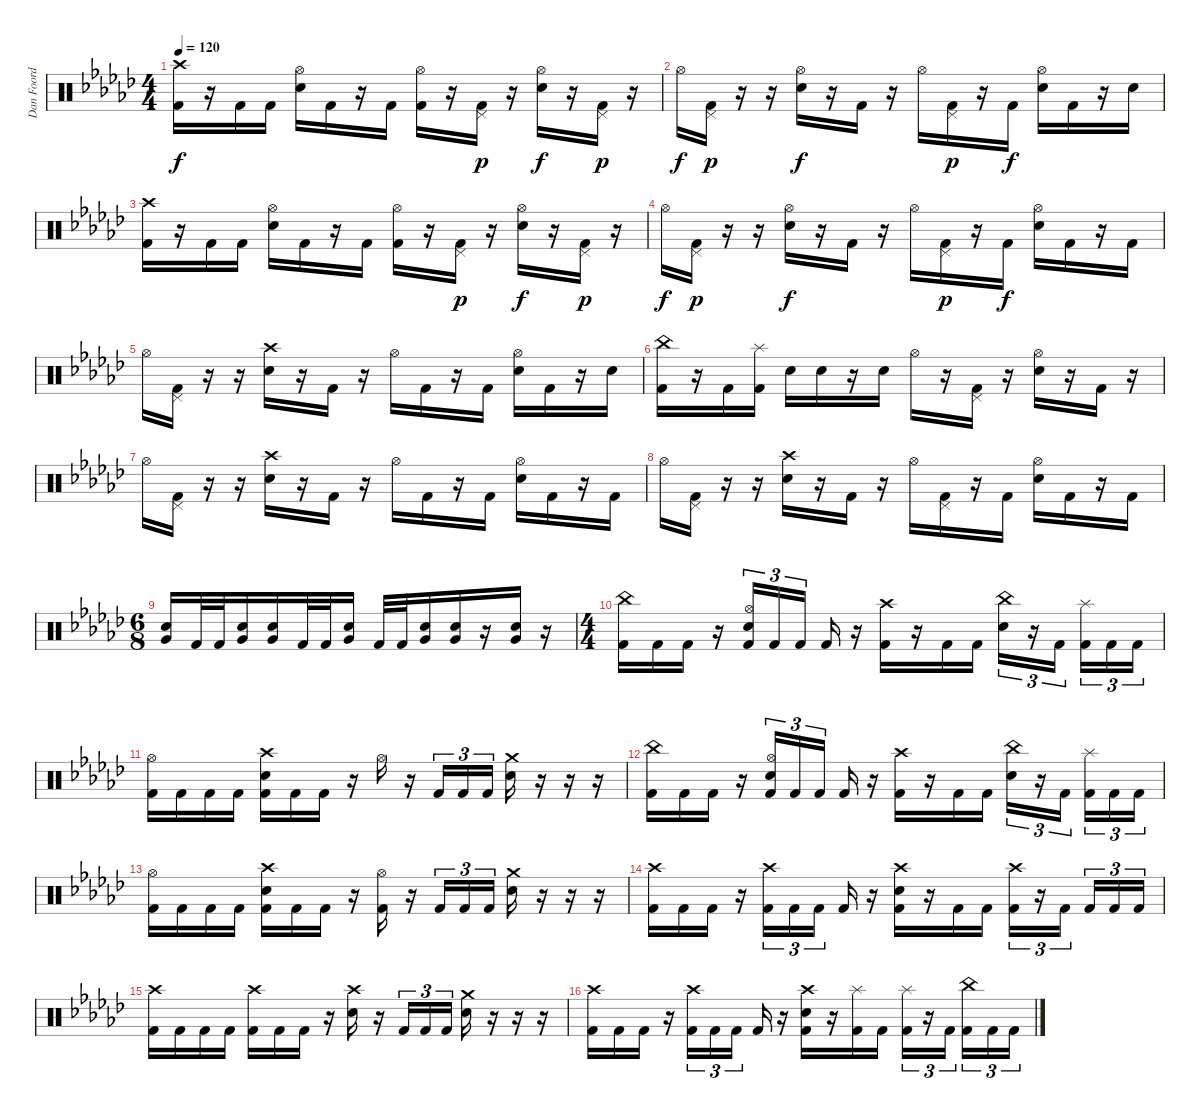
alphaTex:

\track ("Dan Foord 2" "Dan Foord ") {instrument percussion}
\staff {score}
\articulation defaults
\ts (4 4)
\tempo 120
\clef neutral
\ks gb
("Crash high (hit)" "Kick (hit) 2").16{dy f} r.16 "Kick (hit) 2".16 "Kick (hit) 2".16 ("Hi-Hat (open)" "Snare (hit) 2").16 "Kick (hit) 2".16 r.16 "Kick (hit) 2".16 ("Hi-Hat (open)" "Kick (hit) 2").16 r.16 ("Pedal Hi-Hat (hit)" "Kick (hit) 2").16{dy p} r.16 ("Hi-Hat (open)" "Snare (hit) 2").16{dy f} r.16 ("Pedal Hi-Hat (hit)" "Kick (hit) 2").16{dy p} r.16 |
"Hi-Hat (open)".16{dy f} ("Pedal Hi-Hat (hit)" "Kick (hit) 2").16{dy p} r.16 r.16 ("Hi-Hat (open)" "Snare (hit) 2").16{dy f} r.16 "Kick (hit) 2".16 r.16 "Hi-Hat (open)".16 ("Pedal Hi-Hat (hit)" "Kick (hit) 2").16{dy p} r.16 "Kick (hit) 2".16{dy f} ("Hi-Hat (open)" "Snare (hit) 2").16 "Kick (hit) 2".16 r.16 "Snare (hit) 2".16 |
("Crash high (hit)" "Kick (hit) 2").16 r.16 "Kick (hit) 2".16 "Kick (hit) 2".16 ("Hi-Hat (open)" "Snare (hit) 2").16 "Kick (hit) 2".16 r.16 "Kick (hit) 2".16 ("Hi-Hat (open)" "Kick (hit) 2").16 r.16 ("Pedal Hi-Hat (hit)" "Kick (hit) 2").16{dy p} r.16 ("Hi-Hat (open)" "Snare (hit) 2").16{dy f} r.16 ("Pedal Hi-Hat (hit)" "Kick (hit) 2").16{dy p} r.16 |
"Hi-Hat (open)".16{dy f} ("Pedal Hi-Hat (hit)" "Kick (hit) 2").16{dy p} r.16 r.16 ("Hi-Hat (open)" "Snare (hit) 2").16{dy f} r.16 "Kick (hit) 2".16 r.16 "Hi-Hat (open)".16 ("Pedal Hi-Hat (hit)" "Kick (hit) 2").16{dy p} r.16 "Kick (hit) 2".16{dy f} ("Hi-Hat (open)" "Snare (hit) 2").16 "Kick (hit) 2".16 r.16 "Kick (hit) 2".16 |
"Hi-Hat (open)".16 ("Kick (hit) 2" "Pedal Hi-Hat (hit)").16 r.16 r.16 ("Crash high (hit)" "Snare (hit) 2").16 r.16 "Kick (hit) 2".16 r.16 "Hi-Hat (open)".16 "Kick (hit) 2".16 r.16 "Kick (hit) 2".16 ("Hi-Hat (open)" "Snare (hit) 2").16 "Kick (hit) 2".16 r.16 "Snare (hit) 2".16 |
("China (hit)" "Kick (hit) 2").16 r.16 "Kick (hit) 2".16 ("Splash (hit)" "Kick (hit) 2").16 "Snare (hit) 2".16 "Snare (hit) 2".16 r.16 "Snare (hit) 2".16 "Hi-Hat (open)".16 r.16 ("Pedal Hi-Hat (hit)" "Kick (hit) 2").16 r.16 ("Hi-Hat (open)" "Snare (hit) 2").16 r.16 "Kick (hit) 2".16 r.16 |
"Hi-Hat (open)".16 ("Kick (hit) 2" "Pedal Hi-Hat (hit)").16 r.16 r.16 ("Crash high (hit)" "Snare (hit) 2").16 r.16 "Kick (hit) 2".16 r.16 "Hi-Hat (open)".16 "Kick (hit) 2".16 r.16 "Kick (hit) 2".16 ("Hi-Hat (open)" "Snare (hit) 2").16 "Kick (hit) 2".16 r.16 "Kick (hit) 2".16 |
"Hi-Hat (open)".16 ("Kick (hit) 2" "Pedal Hi-Hat (hit)").16 r.16 r.16 ("Crash high (hit)" "Snare (hit) 2").16 r.16 "Kick (hit) 2".16 r.16 "Hi-Hat (open)".16 ("Pedal Hi-Hat (hit)" "Kick (hit) 2").16 r.16 "Kick (hit) 2".16 ("Hi-Hat (open)" "Snare (hit) 2").16 "Kick (hit) 2".16 r.16 "Kick (hit) 2".16 |
\ts (6 8)
("Snare (hit) 2" "Very Low Tom (hit)").16 "Kick (hit) 2".32 "Kick (hit) 2".32 ("Snare (hit) 2" "Very Low Tom (hit)").16 ("Snare (hit) 2" "Very Low Tom (hit)").16 "Kick (hit) 2".32 "Kick (hit) 2".32 ("Snare (hit) 2" "Very Low Tom (hit)").16 "Kick (hit) 2".32 "Kick (hit) 2".32 ("Snare (hit) 2" "Very Low Tom (hit)").16 ("Snare (hit) 2" "Very Low Tom (hit)").16 r.16 ("Snare (hit) 2" "Very Low Tom (hit)").16 r.16 |
\ts (4 4)
("China (hit)" "Kick (hit) 2").16 "Kick (hit) 2".16 "Kick (hit) 2".16 r.16 ("Hi-Hat (open)" "Snare (hit) 2" "Kick (hit) 2").16{tu (3 2)} "Kick (hit) 2".16{tu (3 2)} "Kick (hit) 2".16{tu (3 2) beam splitsecondary} "Kick (hit) 2".16 r.16 ("Crash high (hit)" "Kick (hit) 2").16 r.16 "Kick (hit) 2".16 "Kick (hit) 2".16 ("China (hit)" "Snare (hit) 2").16{tu (3 2)} r.16{tu (3 2)} "Kick (hit) 2".16{tu (3 2) beam splitsecondary} ("Splash (hit)" "Kick (hit) 2").16{tu (3 2)} "Kick (hit) 2".16{tu (3 2)} "Kick (hit) 2".16{tu (3 2)} |
("Hi-Hat (open)" "Kick (hit) 2").16 "Kick (hit) 2".16 "Kick (hit) 2".16 "Kick (hit) 2".16 ("Crash high (hit)" "Snare (hit) 2" "Kick (hit) 2").16 "Kick (hit) 2".16 "Kick (hit) 2".16 r.16 "Hi-Hat (open)".16 r.16 "Kick (hit) 2".16{tu (3 2)} "Kick (hit) 2".16{tu (3 2)} "Kick (hit) 2".16{tu (3 2)} ("Crash medium (hit)" "Snare (hit) 2").16 r.16 r.16 r.16 |
("China (hit)" "Kick (hit) 2").16 "Kick (hit) 2".16 "Kick (hit) 2".16 r.16 ("Hi-Hat (open)" "Snare (hit) 2" "Kick (hit) 2").16{tu (3 2)} "Kick (hit) 2".16{tu (3 2)} "Kick (hit) 2".16{tu (3 2) beam splitsecondary} "Kick (hit) 2".16 r.16 ("Crash high (hit)" "Kick (hit) 2").16 r.16 "Kick (hit) 2".16 "Kick (hit) 2".16 ("China (hit)" "Snare (hit) 2").16{tu (3 2)} r.16{tu (3 2)} "Kick (hit) 2".16{tu (3 2) beam splitsecondary} ("Splash (hit)" "Kick (hit) 2").16{tu (3 2)} "Kick (hit) 2".16{tu (3 2)} "Kick (hit) 2".16{tu (3 2)} |
("Hi-Hat (open)" "Kick (hit) 2").16 "Kick (hit) 2".16 "Kick (hit) 2".16 "Kick (hit) 2".16 ("Crash high (hit)" "Snare (hit) 2" "Kick (hit) 2").16 "Kick (hit) 2".16 "Kick (hit) 2".16 r.16 ("Hi-Hat (open)" "Kick (hit) 2").16 r.16 "Kick (hit) 2".16{tu (3 2)} "Kick (hit) 2".16{tu (3 2)} "Kick (hit) 2".16{tu (3 2)} ("Crash medium (hit)" "Snare (hit) 2").16 r.16 r.16 r.16 |
("Crash high (hit)" "Kick (hit) 2").16 "Kick (hit) 2".16 "Kick (hit) 2".16 r.16 ("Crash high (hit)" "Kick (hit) 2").16{tu (3 2)} "Kick (hit) 2".16{tu (3 2)} "Kick (hit) 2".16{tu (3 2) beam splitsecondary} "Kick (hit) 2".16 r.16 ("Crash high (hit)" "Snare (hit) 2" "Kick (hit) 2").16 r.16 "Kick (hit) 2".16 "Kick (hit) 2".16 ("Crash high (hit)" "Kick (hit) 2").16{tu (3 2)} r.16{tu (3 2)} "Kick (hit) 2".16{tu (3 2) beam splitsecondary} "Kick (hit) 2".16{tu (3 2)} "Kick (hit) 2".16{tu (3 2)} "Kick (hit) 2".16{tu (3 2)} |
("Crash high (hit)" "Kick (hit) 2").16 "Kick (hit) 2".16 "Kick (hit) 2".16 "Kick (hit) 2".16 ("Crash high (hit)" "Kick (hit) 2").16 "Kick (hit) 2".16 "Kick (hit) 2".16 r.16 ("Crash high (hit)" "Snare (hit) 2").16 r.16 "Kick (hit) 2".16{tu (3 2)} "Kick (hit) 2".16{tu (3 2)} "Kick (hit) 2".16{tu (3 2)} ("Crash medium (hit)" "Snare (hit) 2").16 r.16 r.16 r.16 |
("Crash high (hit)" "Kick (hit) 2").16 "Kick (hit) 2".16 "Kick (hit) 2".16 r.16 ("Crash high (hit)" "Kick (hit) 2").16{tu (3 2)} "Kick (hit) 2".16{tu (3 2)} "Kick (hit) 2".16{tu (3 2) beam splitsecondary} "Kick (hit) 2".16 r.16 ("Crash high (hit)" "Snare (hit) 2" "Kick (hit) 2").16 r.16 ("Splash (hit)" "Kick (hit) 2").16 "Kick (hit) 2".16 ("Splash (hit)" "Kick (hit) 2").16{tu (3 2)} r.16{tu (3 2)} "Kick (hit) 2".16{tu (3 2) beam splitsecondary} ("China (hit)" "Kick (hit) 2").16{tu (3 2)} "Kick (hit) 2".16{tu (3 2)} "Kick (hit) 2".16{tu (3 2)}
